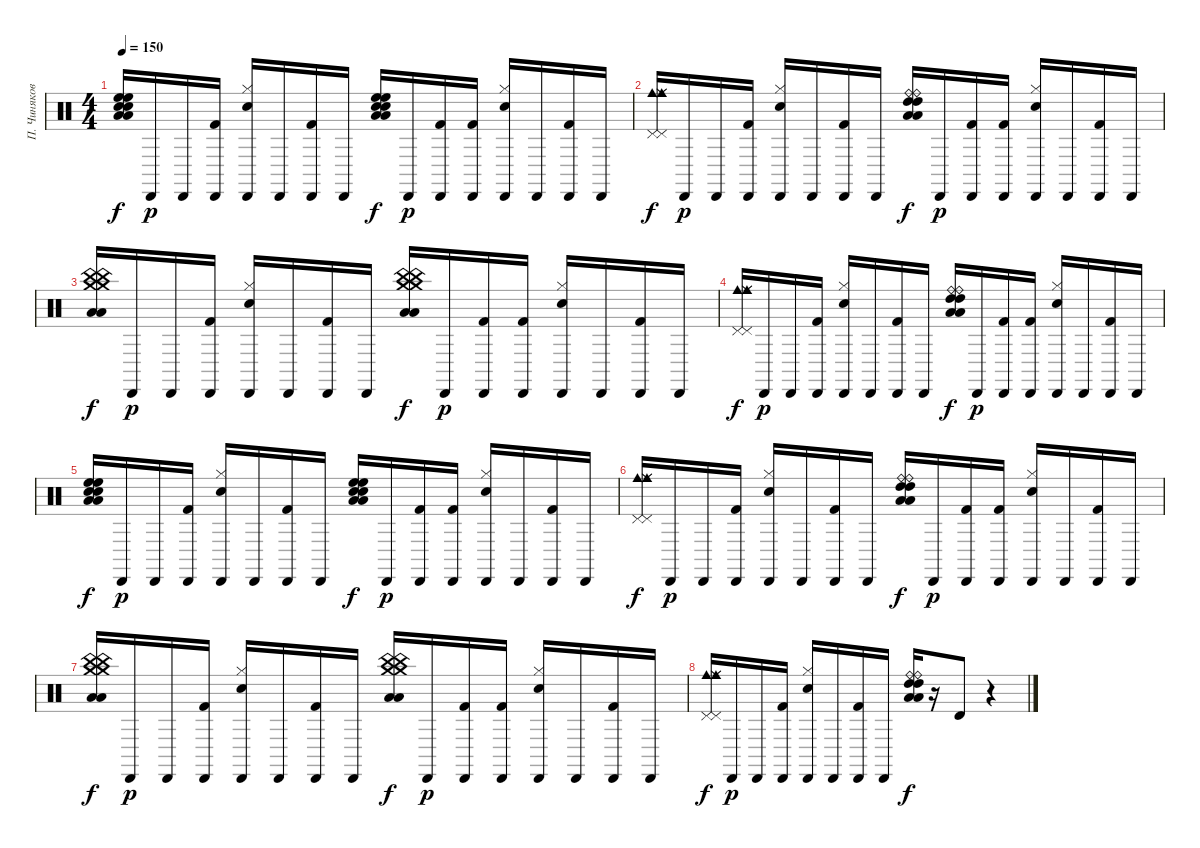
\track ("П. Чиняков" "П. Чиняков") {instrument percussion}
\staff {score}
\articulation defaults
\ts (4 4)
\tempo 150
\clef neutral
\ks c
("High Floor Tom (hit)" "Low Tom (hit)" "Snare (hit) 2" "High Floor Tom (hit)" "Low Tom (hit)" "Snare (hit) 2").16{dy f} "Cabasa (hit)".16{dy p} "Cabasa (hit)".16 ("Cabasa (hit)" "Kick (hit) 2").16 ("Hi-Hat (closed)" "Cabasa (hit)" "Snare (hit) 2").16 "Cabasa (hit)".16 ("Cabasa (hit)" "Kick (hit) 2").16 "Cabasa (hit)".16 ("High Floor Tom (hit)" "Low Tom (hit)" "Snare (hit) 2" "High Floor Tom (hit)" "Low Tom (hit)" "Snare (hit) 2").16{dy f} "Cabasa (hit)".16{dy p} ("Cabasa (hit)" "Kick (hit) 2").16 ("Cabasa (hit)" "Kick (hit) 2").16 ("Hi-Hat (closed)" "Cabasa (hit)" "Snare (hit) 2").16 "Cabasa (hit)".16 ("Cabasa (hit)" "Kick (hit) 2").16 "Cabasa (hit)".16 |
("Cowbell medium (hit)" "Ride (middle)" "Pedal Hi-Hat (hit)" "Cowbell medium (hit)" "Ride (middle)" "Pedal Hi-Hat (hit)").16{dy f} "Cabasa (hit)".16{dy p} "Cabasa (hit)".16 ("Cabasa (hit)" "Kick (hit) 2").16 ("Hi-Hat (closed)" "Cabasa (hit)" "Snare (hit) 2").16 "Cabasa (hit)".16 ("Cabasa (hit)" "Kick (hit) 2").16 "Cabasa (hit)".16 ("Ride (bell)" "High Tom (hit)" "Low Floor Tom (hit)" "Ride (bell)" "High Tom (hit)" "Low Floor Tom (hit)").16{dy f} "Cabasa (hit)".16{dy p} ("Cabasa (hit)" "Kick (hit) 2").16 ("Cabasa (hit)" "Kick (hit) 2").16 ("Hi-Hat (closed)" "Cabasa (hit)" "Snare (hit) 2").16 "Cabasa (hit)".16 ("Cabasa (hit)" "Kick (hit) 2").16 "Cabasa (hit)".16 |
("Crash medium (hit)" "China (hit)" "Low Tom (hit)" "Crash medium (hit)" "China (hit)" "Low Tom (hit)").16{dy f} "Cabasa (hit)".16{dy p} "Cabasa (hit)".16 ("Cabasa (hit)" "Kick (hit) 2").16 ("Hi-Hat (closed)" "Cabasa (hit)" "Snare (hit) 2").16 "Cabasa (hit)".16 ("Cabasa (hit)" "Kick (hit) 2").16 "Cabasa (hit)".16 ("Crash medium (hit)" "China (hit)" "Low Tom (hit)" "Crash medium (hit)" "China (hit)" "Low Tom (hit)").16{dy f} "Cabasa (hit)".16{dy p} ("Cabasa (hit)" "Kick (hit) 2").16 ("Cabasa (hit)" "Kick (hit) 2").16 ("Hi-Hat (closed)" "Cabasa (hit)" "Snare (hit) 2").16 "Cabasa (hit)".16 ("Cabasa (hit)" "Kick (hit) 2").16 "Cabasa (hit)".16 |
("Cowbell medium (hit)" "Ride (middle)" "Pedal Hi-Hat (hit)" "Cowbell medium (hit)" "Ride (middle)" "Pedal Hi-Hat (hit)").16{dy f} "Cabasa (hit)".16{dy p} "Cabasa (hit)".16 ("Cabasa (hit)" "Kick (hit) 2").16 ("Hi-Hat (closed)" "Cabasa (hit)" "Snare (hit) 2").16 "Cabasa (hit)".16 ("Cabasa (hit)" "Kick (hit) 2").16 "Cabasa (hit)".16 ("Ride (bell)" "High Tom (hit)" "Low Floor Tom (hit)" "Ride (bell)" "High Tom (hit)" "Low Floor Tom (hit)").16{dy f} "Cabasa (hit)".16{dy p} ("Cabasa (hit)" "Kick (hit) 2").16 ("Cabasa (hit)" "Kick (hit) 2").16 ("Hi-Hat (closed)" "Cabasa (hit)" "Snare (hit) 2").16 "Cabasa (hit)".16 ("Cabasa (hit)" "Kick (hit) 2").16 "Cabasa (hit)".16 |
("High Floor Tom (hit)" "Low Tom (hit)" "Snare (hit) 2" "High Floor Tom (hit)" "Low Tom (hit)" "Snare (hit) 2").16{dy f} "Cabasa (hit)".16{dy p} "Cabasa (hit)".16 ("Cabasa (hit)" "Kick (hit) 2").16 ("Hi-Hat (closed)" "Cabasa (hit)" "Snare (hit) 2").16 "Cabasa (hit)".16 ("Cabasa (hit)" "Kick (hit) 2").16 "Cabasa (hit)".16 ("High Floor Tom (hit)" "Low Tom (hit)" "Snare (hit) 2" "High Floor Tom (hit)" "Low Tom (hit)" "Snare (hit) 2").16{dy f} "Cabasa (hit)".16{dy p} ("Cabasa (hit)" "Kick (hit) 2").16 ("Cabasa (hit)" "Kick (hit) 2").16 ("Hi-Hat (closed)" "Cabasa (hit)" "Snare (hit) 2").16 "Cabasa (hit)".16 ("Cabasa (hit)" "Kick (hit) 2").16 "Cabasa (hit)".16 |
("Cowbell medium (hit)" "Ride (middle)" "Pedal Hi-Hat (hit)" "Cowbell medium (hit)" "Ride (middle)" "Pedal Hi-Hat (hit)").16{dy f} "Cabasa (hit)".16{dy p} "Cabasa (hit)".16 ("Cabasa (hit)" "Kick (hit) 2").16 ("Hi-Hat (closed)" "Cabasa (hit)" "Snare (hit) 2").16 "Cabasa (hit)".16 ("Cabasa (hit)" "Kick (hit) 2").16 "Cabasa (hit)".16 ("Ride (bell)" "High Tom (hit)" "Low Floor Tom (hit)" "Ride (bell)" "High Tom (hit)" "Low Floor Tom (hit)").16{dy f} "Cabasa (hit)".16{dy p} ("Cabasa (hit)" "Kick (hit) 2").16 ("Cabasa (hit)" "Kick (hit) 2").16 ("Hi-Hat (closed)" "Cabasa (hit)" "Snare (hit) 2").16 "Cabasa (hit)".16 ("Cabasa (hit)" "Kick (hit) 2").16 "Cabasa (hit)".16 |
("Crash medium (hit)" "China (hit)" "Low Tom (hit)" "Crash medium (hit)" "China (hit)" "Low Tom (hit)").16{dy f} "Cabasa (hit)".16{dy p} "Cabasa (hit)".16 ("Cabasa (hit)" "Kick (hit) 2").16 ("Hi-Hat (closed)" "Cabasa (hit)" "Snare (hit) 2").16 "Cabasa (hit)".16 ("Cabasa (hit)" "Kick (hit) 2").16 "Cabasa (hit)".16 ("Crash medium (hit)" "China (hit)" "Low Tom (hit)" "Crash medium (hit)" "China (hit)" "Low Tom (hit)").16{dy f} "Cabasa (hit)".16{dy p} ("Cabasa (hit)" "Kick (hit) 2").16 ("Cabasa (hit)" "Kick (hit) 2").16 ("Hi-Hat (closed)" "Cabasa (hit)" "Snare (hit) 2").16 "Cabasa (hit)".16 ("Cabasa (hit)" "Kick (hit) 2").16 "Cabasa (hit)".16 |
("Cowbell medium (hit)" "Ride (middle)" "Pedal Hi-Hat (hit)" "Cowbell medium (hit)" "Ride (middle)" "Pedal Hi-Hat (hit)").16{dy f} "Cabasa (hit)".16{dy p} "Cabasa (hit)".16 ("Cabasa (hit)" "Kick (hit) 2").16 ("Hi-Hat (closed)" "Cabasa (hit)" "Snare (hit) 2").16 "Cabasa (hit)".16 ("Cabasa (hit)" "Kick (hit) 2").16 "Cabasa (hit)".16 ("Ride (bell)" "High Tom (hit)" "Low Floor Tom (hit)" "Ride (bell)" "High Tom (hit)" "Low Floor Tom (hit)").16{dy f} r.16 "Timbale high (hit)".8 r.4
